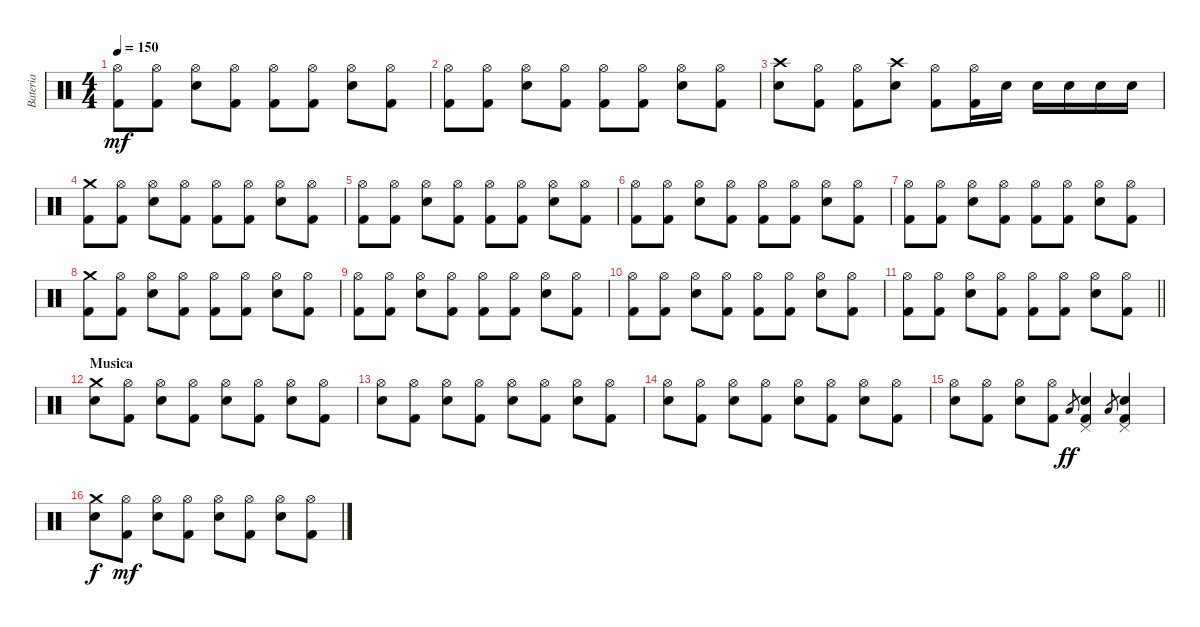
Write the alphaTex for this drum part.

\track ("Bateria" "Bateria") {instrument percussion}
\staff {score}
\articulation defaults
\ts (4 4)
\tempo 150
\clef neutral
\ks c
("Hi-Hat (open)" "Kick (hit) 2").8{dy mf} ("Hi-Hat (open)" "Kick (hit) 2").8 ("Hi-Hat (open)" "Snare (hit) 2").8 ("Hi-Hat (open)" "Kick (hit) 2").8 ("Hi-Hat (open)" "Kick (hit) 2").8 ("Hi-Hat (open)" "Kick (hit) 2").8 ("Hi-Hat (open)" "Snare (hit) 2").8 ("Hi-Hat (open)" "Kick (hit) 2").8 |
("Hi-Hat (open)" "Kick (hit) 2").8 ("Hi-Hat (open)" "Kick (hit) 2").8 ("Hi-Hat (open)" "Snare (hit) 2").8 ("Hi-Hat (open)" "Kick (hit) 2").8 ("Hi-Hat (open)" "Kick (hit) 2").8 ("Hi-Hat (open)" "Kick (hit) 2").8 ("Hi-Hat (open)" "Snare (hit) 2").8 ("Hi-Hat (open)" "Kick (hit) 2").8 |
("Crash high (hit)" "Snare (hit) 2").8 ("Hi-Hat (open)" "Kick (hit) 2").8 ("Hi-Hat (open)" "Kick (hit) 2").8 ("Crash high (hit)" "Snare (hit) 2").8 ("Hi-Hat (open)" "Kick (hit) 2").8 ("Hi-Hat (open)" "Kick (hit) 2").16 "Snare (hit) 2".16 "Snare (hit) 2".16 "Snare (hit) 2".16 "Snare (hit) 2".16 "Snare (hit) 2".16 |
("Crash medium (hit)" "Kick (hit) 2").8 ("Hi-Hat (open)" "Kick (hit) 2").8 ("Hi-Hat (open)" "Snare (hit) 2").8 ("Hi-Hat (open)" "Kick (hit) 2").8 ("Hi-Hat (open)" "Kick (hit) 2").8 ("Hi-Hat (open)" "Kick (hit) 2").8 ("Hi-Hat (open)" "Snare (hit) 2").8 ("Hi-Hat (open)" "Kick (hit) 2").8 |
("Hi-Hat (open)" "Kick (hit) 2").8 ("Hi-Hat (open)" "Kick (hit) 2").8 ("Hi-Hat (open)" "Snare (hit) 2").8 ("Hi-Hat (open)" "Kick (hit) 2").8 ("Hi-Hat (open)" "Kick (hit) 2").8 ("Hi-Hat (open)" "Kick (hit) 2").8 ("Hi-Hat (open)" "Snare (hit) 2").8 ("Hi-Hat (open)" "Kick (hit) 2").8 |
("Hi-Hat (open)" "Kick (hit) 2").8 ("Hi-Hat (open)" "Kick (hit) 2").8 ("Hi-Hat (open)" "Snare (hit) 2").8 ("Hi-Hat (open)" "Kick (hit) 2").8 ("Hi-Hat (open)" "Kick (hit) 2").8 ("Hi-Hat (open)" "Kick (hit) 2").8 ("Hi-Hat (open)" "Snare (hit) 2").8 ("Hi-Hat (open)" "Kick (hit) 2").8 |
("Hi-Hat (open)" "Kick (hit) 2").8 ("Hi-Hat (open)" "Kick (hit) 2").8 ("Hi-Hat (open)" "Snare (hit) 2").8 ("Hi-Hat (open)" "Kick (hit) 2").8 ("Hi-Hat (open)" "Kick (hit) 2").8 ("Hi-Hat (open)" "Kick (hit) 2").8 ("Hi-Hat (open)" "Snare (hit) 2").8 ("Hi-Hat (open)" "Kick (hit) 2").8 |
("Crash medium (hit)" "Kick (hit) 2").8 ("Hi-Hat (open)" "Kick (hit) 2").8 ("Hi-Hat (open)" "Snare (hit) 2").8 ("Hi-Hat (open)" "Kick (hit) 2").8 ("Hi-Hat (open)" "Kick (hit) 2").8 ("Hi-Hat (open)" "Kick (hit) 2").8 ("Hi-Hat (open)" "Snare (hit) 2").8 ("Hi-Hat (open)" "Kick (hit) 2").8 |
("Hi-Hat (open)" "Kick (hit) 2").8 ("Hi-Hat (open)" "Kick (hit) 2").8 ("Hi-Hat (open)" "Snare (hit) 2").8 ("Hi-Hat (open)" "Kick (hit) 2").8 ("Hi-Hat (open)" "Kick (hit) 2").8 ("Hi-Hat (open)" "Kick (hit) 2").8 ("Hi-Hat (open)" "Snare (hit) 2").8 ("Hi-Hat (open)" "Kick (hit) 2").8 |
("Hi-Hat (open)" "Kick (hit) 2").8 ("Hi-Hat (open)" "Kick (hit) 2").8 ("Hi-Hat (open)" "Snare (hit) 2").8 ("Hi-Hat (open)" "Kick (hit) 2").8 ("Hi-Hat (open)" "Kick (hit) 2").8 ("Hi-Hat (open)" "Kick (hit) 2").8 ("Hi-Hat (open)" "Snare (hit) 2").8 ("Hi-Hat (open)" "Kick (hit) 2").8 |
\barLineRight lightlight
("Hi-Hat (open)" "Kick (hit) 2").8 ("Hi-Hat (open)" "Kick (hit) 2").8 ("Hi-Hat (open)" "Snare (hit) 2").8 ("Hi-Hat (open)" "Kick (hit) 2").8 ("Hi-Hat (open)" "Kick (hit) 2").8 ("Hi-Hat (open)" "Kick (hit) 2").8 ("Hi-Hat (open)" "Snare (hit) 2").8 ("Hi-Hat (open)" "Kick (hit) 2").8 |
\section ("" "Musica")
("Crash medium (hit)" "Snare (hit) 2").8 ("Hi-Hat (open)" "Kick (hit) 2").8 ("Hi-Hat (open)" "Snare (hit) 2").8 ("Hi-Hat (open)" "Kick (hit) 2").8 ("Hi-Hat (open)" "Snare (hit) 2").8 ("Hi-Hat (open)" "Kick (hit) 2").8 ("Hi-Hat (open)" "Snare (hit) 2").8 ("Hi-Hat (open)" "Kick (hit) 2").8 |
("Hi-Hat (open)" "Snare (hit) 2").8 ("Hi-Hat (open)" "Kick (hit) 2").8 ("Hi-Hat (open)" "Snare (hit) 2").8 ("Hi-Hat (open)" "Kick (hit) 2").8 ("Hi-Hat (open)" "Snare (hit) 2").8 ("Hi-Hat (open)" "Kick (hit) 2").8 ("Hi-Hat (open)" "Snare (hit) 2").8 ("Hi-Hat (open)" "Kick (hit) 2").8 |
("Hi-Hat (open)" "Snare (hit) 2").8 ("Hi-Hat (open)" "Kick (hit) 2").8 ("Hi-Hat (open)" "Snare (hit) 2").8 ("Hi-Hat (open)" "Kick (hit) 2").8 ("Hi-Hat (open)" "Snare (hit) 2").8 ("Hi-Hat (open)" "Kick (hit) 2").8 ("Hi-Hat (open)" "Snare (hit) 2").8 ("Hi-Hat (open)" "Kick (hit) 2").8 |
("Hi-Hat (open)" "Snare (hit) 2").8 ("Hi-Hat (open)" "Kick (hit) 2").8 ("Hi-Hat (open)" "Snare (hit) 2").8 ("Hi-Hat (open)" "Kick (hit) 2").8 "Low Floor Tom (hit)".8{gr dy ff} ("Pedal Hi-Hat (hit)" "Snare (hit) 2" "Kick (hit) 2").4 "Low Floor Tom (hit)".8{gr} ("Pedal Hi-Hat (hit)" "Snare (hit) 2" "Kick (hit) 2").4 |
("Crash medium (hit)" "Snare (hit) 2").8{dy f} ("Hi-Hat (open)" "Kick (hit) 2").8{dy mf} ("Hi-Hat (open)" "Snare (hit) 2").8 ("Hi-Hat (open)" "Kick (hit) 2").8 ("Hi-Hat (open)" "Snare (hit) 2").8 ("Hi-Hat (open)" "Kick (hit) 2").8 ("Hi-Hat (open)" "Snare (hit) 2").8 ("Hi-Hat (open)" "Kick (hit) 2").8
